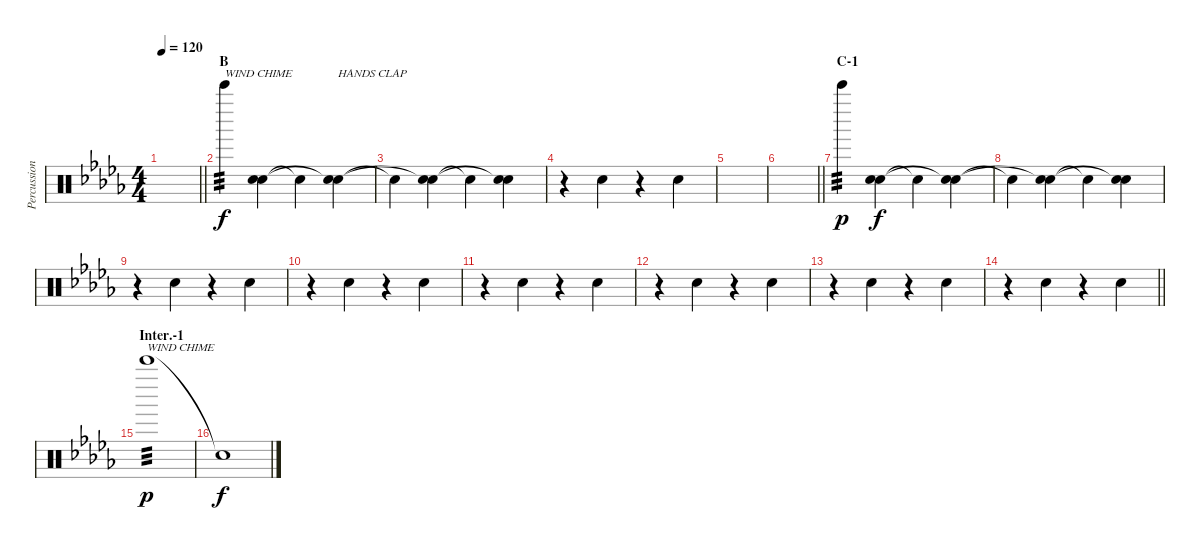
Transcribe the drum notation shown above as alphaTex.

\track ("Percussion B1 (Tainaka Ritsu)" "Percussion") {instrument percussion}
\staff {score}
\articulation defaults
\ts (4 4)
\tempo 120
\clef neutral
\barLineRight lightlight
\ks db
|
\section ("" "B")
"Bell Tree (hit)".4{txt "WIND CHIME" tp 3} ("Hand Clap (hit)" "Snare (hit)").4{dy f} "Snare (hit)"{t}.4 ("Hand Clap (hit)" "Snare (hit)"{t}).4{txt "HANDS CLAP"} |
"Snare (hit)"{t}.4 ("Hand Clap (hit)" "Snare (hit)"{t}).4 "Snare (hit)"{t}.4 ("Hand Clap (hit)" "Snare (hit)"{t}).4 |
r.4 "Hand Clap (hit)".4 r.4 "Hand Clap (hit)".4 |
|
\barLineRight lightlight
|
\section ("" "C-1")
"Bell Tree (hit)".4{tp 3 dy p} ("Hand Clap (hit)" "Snare (hit)").4{dy f} "Snare (hit)"{t}.4 ("Hand Clap (hit)" "Snare (hit)"{t}).4 |
"Snare (hit)"{t}.4 ("Hand Clap (hit)" "Snare (hit)"{t}).4 "Snare (hit)"{t}.4 ("Hand Clap (hit)" "Snare (hit)"{t}).4 |
r.4 "Hand Clap (hit)".4 r.4 "Hand Clap (hit)".4 |
r.4 "Hand Clap (hit)".4 r.4 "Hand Clap (hit)".4 |
r.4 "Hand Clap (hit)".4 r.4 "Hand Clap (hit)".4 |
r.4 "Hand Clap (hit)".4 r.4 "Hand Clap (hit)".4 |
r.4 "Hand Clap (hit)".4 r.4 "Hand Clap (hit)".4 |
\barLineRight lightlight
r.4 "Hand Clap (hit)".4 r.4 "Hand Clap (hit)".4 |
\section ("" "Inter.-1")
"Bell Tree (hit)".1{txt "WIND CHIME" tp 3 dy p} |
"Snare (hit)"{t}.1{dy f}
